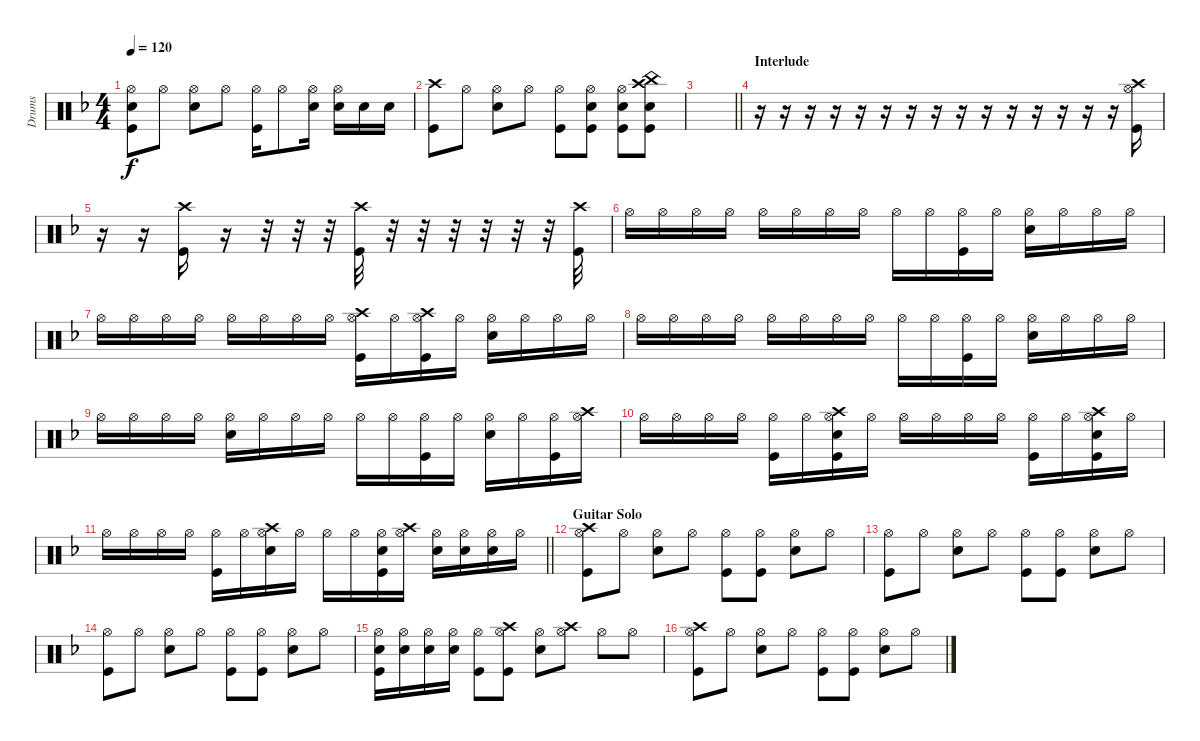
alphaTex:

\track ("Drums" "Drums") {instrument percussion}
\staff {score}
\articulation defaults
\ts (4 4)
\tempo 120
\clef neutral
\ks f
("Hi-Hat (open)" "Snare (hit) 2" "Kick (hit)").8{dy f} "Hi-Hat (open)".8 ("Hi-Hat (open)" "Snare (hit) 2").8 "Hi-Hat (open)".8 ("Hi-Hat (open)" "Kick (hit)").16 "Hi-Hat (open)".8 ("Hi-Hat (open)" "Snare (hit) 2").16 ("Hi-Hat (open)" "Snare (hit) 2").16 "Snare (hit) 2".16 "Snare (hit) 2".16 |
("Crash high (hit)" "Kick (hit)").8 "Hi-Hat (open)".8 ("Hi-Hat (open)" "Snare (hit) 2").8 "Hi-Hat (open)".8 ("Hi-Hat (open)" "Kick (hit)").8 ("Hi-Hat (open)" "Snare (hit) 2" "Kick (hit)").8 ("Hi-Hat (open)" "Snare (hit) 2" "Kick (hit)").8 ("China (hit)" "Crash high (hit)" "Snare (hit) 2" "Kick (hit)").8 |
\barLineRight lightlight
|
\section ("" "Interlude")
r.16 r.16 r.16 r.16 r.16 r.16 r.16 r.16 r.16 r.16 r.16 r.16 r.16 r.16 r.16 ("Hi-Hat (open)" "Crash high (hit)" "Kick (hit)").16 |
r.16 r.16 ("Crash high (hit)" "Kick (hit)").16 r.16 r.32 r.32 r.32 ("Crash high (hit)" "Kick (hit)").32 r.32 r.32 r.32 r.32 r.32 r.32 ("Crash high (hit)" "Kick (hit)").32 |
"Hi-Hat (open)".16 "Hi-Hat (open)".16 "Hi-Hat (open)".16 "Hi-Hat (open)".16 "Hi-Hat (open)".16 "Hi-Hat (open)".16 "Hi-Hat (open)".16 "Hi-Hat (open)".16 "Hi-Hat (open)".16 "Hi-Hat (open)".16 ("Hi-Hat (open)" "Kick (hit)").16 "Hi-Hat (open)".16 ("Hi-Hat (open)" "Snare (hit) 2").16 "Hi-Hat (open)".16 "Hi-Hat (open)".16 "Hi-Hat (open)".16 |
"Hi-Hat (open)".16 "Hi-Hat (open)".16 "Hi-Hat (open)".16 "Hi-Hat (open)".16 "Hi-Hat (open)".16 "Hi-Hat (open)".16 "Hi-Hat (open)".16 "Hi-Hat (open)".16 ("Hi-Hat (open)" "Crash high (hit)" "Kick (hit)").16 "Hi-Hat (open)".16 ("Hi-Hat (open)" "Crash high (hit)" "Kick (hit)").16 "Hi-Hat (open)".16 ("Hi-Hat (open)" "Snare (hit) 2").16 "Hi-Hat (open)".16 "Hi-Hat (open)".16 "Hi-Hat (open)".16 |
"Hi-Hat (open)".16 "Hi-Hat (open)".16 "Hi-Hat (open)".16 "Hi-Hat (open)".16 "Hi-Hat (open)".16 "Hi-Hat (open)".16 "Hi-Hat (open)".16 "Hi-Hat (open)".16 "Hi-Hat (open)".16 "Hi-Hat (open)".16 ("Hi-Hat (open)" "Kick (hit)").16 "Hi-Hat (open)".16 ("Hi-Hat (open)" "Snare (hit) 2").16 "Hi-Hat (open)".16 "Hi-Hat (open)".16 "Hi-Hat (open)".16 |
"Hi-Hat (open)".16 "Hi-Hat (open)".16 "Hi-Hat (open)".16 "Hi-Hat (open)".16 ("Hi-Hat (open)" "Snare (hit) 2").16 "Hi-Hat (open)".16 "Hi-Hat (open)".16 "Hi-Hat (open)".16 "Hi-Hat (open)".16 "Hi-Hat (open)".16 ("Hi-Hat (open)" "Kick (hit)").16 "Hi-Hat (open)".16 ("Hi-Hat (open)" "Snare (hit) 2").16 "Hi-Hat (open)".16 ("Hi-Hat (open)" "Kick (hit)").16 ("Hi-Hat (open)" "Crash high (hit)").16 |
"Hi-Hat (open)".16 "Hi-Hat (open)".16 "Hi-Hat (open)".16 "Hi-Hat (open)".16 ("Hi-Hat (open)" "Kick (hit)").16 "Hi-Hat (open)".16 ("Hi-Hat (open)" "Crash high (hit)" "Snare (hit) 2" "Kick (hit)").16 "Hi-Hat (open)".16 "Hi-Hat (open)".16 "Hi-Hat (open)".16 "Hi-Hat (open)".16 "Hi-Hat (open)".16 ("Hi-Hat (open)" "Kick (hit)").16 "Hi-Hat (open)".16 ("Hi-Hat (open)" "Crash high (hit)" "Snare (hit) 2" "Kick (hit)").16 "Hi-Hat (open)".16 |
\barLineRight lightlight "Hi-Hat (open)".16 "Hi-Hat (open)".16 "Hi-Hat (open)".16 "Hi-Hat (open)".16
("Hi-Hat (open)" "Kick (hit)").16 "Hi-Hat (open)".16 ("Hi-Hat (open)" "Crash high (hit)" "Snare (hit) 2").16 "Hi-Hat (open)".16 "Hi-Hat (open)".16 "Hi-Hat (open)".16 ("Hi-Hat (open)" "Snare (hit) 2" "Kick (hit)").16 ("Hi-Hat (open)" "Crash high (hit)").16 ("Hi-Hat (open)" "Snare (hit) 2").16 ("Hi-Hat (open)" "Snare (hit) 2").16 ("Hi-Hat (open)" "Snare (hit) 2").16 "Hi-Hat (open)".16 |
\section ("" "Guitar Solo")
("Hi-Hat (open)" "Crash high (hit)" "Kick (hit)").8 "Hi-Hat (open)".8 ("Hi-Hat (open)" "Snare (hit) 2").8 "Hi-Hat (open)".8 ("Hi-Hat (open)" "Kick (hit)").8 ("Hi-Hat (open)" "Kick (hit)").8 ("Hi-Hat (open)" "Snare (hit) 2").8 "Hi-Hat (open)".8 |
("Hi-Hat (open)" "Kick (hit)").8 "Hi-Hat (open)".8 ("Hi-Hat (open)" "Snare (hit) 2").8 "Hi-Hat (open)".8 ("Hi-Hat (open)" "Kick (hit)").8 ("Hi-Hat (open)" "Kick (hit)").8 ("Hi-Hat (open)" "Snare (hit) 2").8 "Hi-Hat (open)".8 |
("Hi-Hat (open)" "Kick (hit)").8 "Hi-Hat (open)".8 ("Hi-Hat (open)" "Snare (hit) 2").8 "Hi-Hat (open)".8 ("Hi-Hat (open)" "Kick (hit)").8 ("Hi-Hat (open)" "Kick (hit)").8 ("Hi-Hat (open)" "Snare (hit) 2").8 "Hi-Hat (open)".8 |
("Hi-Hat (open)" "Snare (hit) 2" "Kick (hit)").16 ("Hi-Hat (open)" "Snare (hit) 2").16 ("Hi-Hat (open)" "Snare (hit) 2").16 ("Hi-Hat (open)" "Snare (hit) 2").16 ("Hi-Hat (open)" "Kick (hit)").8 ("Hi-Hat (open)" "Crash high (hit)" "Kick (hit)").8 ("Hi-Hat (open)" "Snare (hit) 2").8 ("Hi-Hat (open)" "Crash high (hit)").8 "Hi-Hat (open)".8 "Hi-Hat (open)".8 |
("Hi-Hat (open)" "Crash high (hit)" "Kick (hit)").8 "Hi-Hat (open)".8 ("Hi-Hat (open)" "Snare (hit) 2").8 "Hi-Hat (open)".8 ("Hi-Hat (open)" "Kick (hit)").8 ("Hi-Hat (open)" "Kick (hit)").8 ("Hi-Hat (open)" "Snare (hit) 2").8 "Hi-Hat (open)".8
